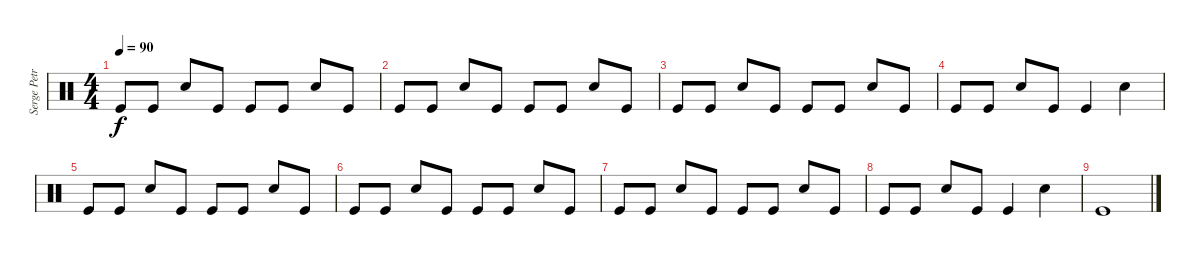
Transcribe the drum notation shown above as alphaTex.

\track ("Serge Petrone" "Serge Petr") {instrument percussion}
\staff {score}
\articulation defaults
\ts (4 4)
\tempo 90
\clef neutral
\ks c "Kick (hit)".8{dy f} "Kick (hit)".8 "Snare (hit) 2".8 "Kick (hit)".8 "Kick (hit)".8 "Kick (hit)".8 "Snare (hit) 2".8 "Kick (hit)".8
|
"Kick (hit)".8 "Kick (hit)".8 "Snare (hit) 2".8 "Kick (hit)".8 "Kick (hit)".8 "Kick (hit)".8 "Snare (hit) 2".8 "Kick (hit)".8 |
"Kick (hit)".8 "Kick (hit)".8 "Snare (hit) 2".8 "Kick (hit)".8 "Kick (hit)".8 "Kick (hit)".8 "Snare (hit) 2".8 "Kick (hit)".8 |
"Kick (hit)".8 "Kick (hit)".8 "Snare (hit) 2".8 "Kick (hit)".8 "Kick (hit)".4 "Snare (hit) 2".4 |
"Kick (hit)".8 "Kick (hit)".8 "Snare (hit) 2".8 "Kick (hit)".8 "Kick (hit)".8 "Kick (hit)".8 "Snare (hit) 2".8 "Kick (hit)".8 |
"Kick (hit)".8 "Kick (hit)".8 "Snare (hit) 2".8 "Kick (hit)".8 "Kick (hit)".8 "Kick (hit)".8 "Snare (hit) 2".8 "Kick (hit)".8 |
"Kick (hit)".8 "Kick (hit)".8 "Snare (hit) 2".8 "Kick (hit)".8 "Kick (hit)".8 "Kick (hit)".8 "Snare (hit) 2".8 "Kick (hit)".8 |
"Kick (hit)".8 "Kick (hit)".8 "Snare (hit) 2".8 "Kick (hit)".8 "Kick (hit)".4 "Snare (hit) 2".4 |
"Kick (hit)".1
